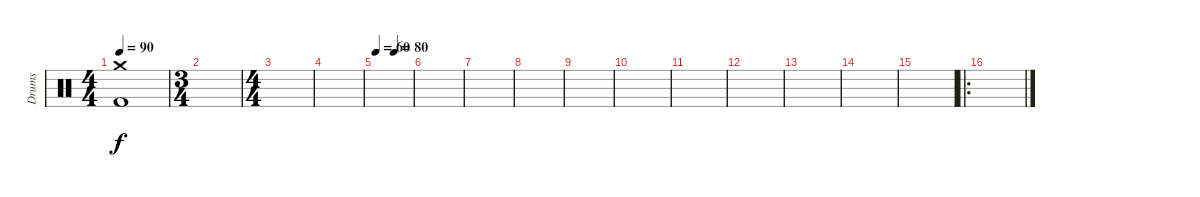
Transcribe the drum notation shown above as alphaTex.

\track ("Drums" "Drums") {instrument percussion}
\staff {score}
\articulation defaults
\ts (4 4)
\tempo 90
\clef neutral
\ks c
("Crash medium (hit)" "Kick (hit) 2").1{dy f} |
\ts (3 4)
|
\ts (4 4)
|
|
\tempo 60
\tempo (80 0.5)
|
|
|
|
|
|
|
|
|
|
|
\ro
